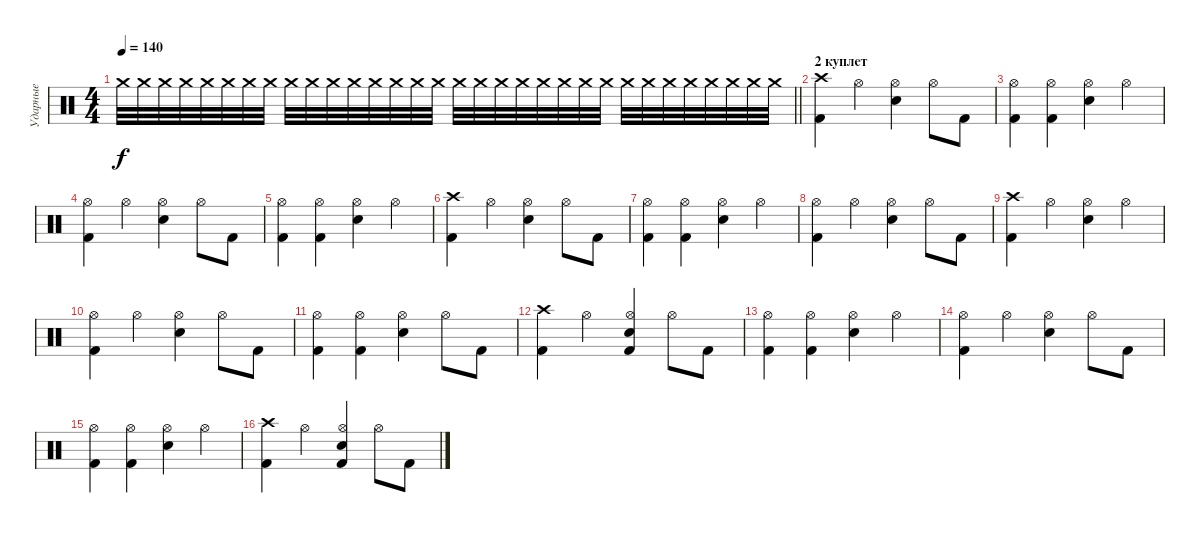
\track ("Ударные" "Ударные") {instrument percussion}
\staff {score}
\articulation defaults
\ts (4 4)
\tempo 140
\clef neutral
\barLineRight lightlight
\ks c "Crash medium (hit)".32{dy f} "Crash medium (hit)".32 "Crash medium (hit)".32 "Crash medium (hit)".32{volume 10} "Crash medium (hit)".32 "Crash medium (hit)".32 "Crash medium (hit)".32 "Crash medium (hit)".32{volume 10} "Crash medium (hit)".32 "Crash medium (hit)".32 "Crash medium (hit)".32 "Crash medium (hit)".32{volume 13} "Crash medium (hit)".32 "Crash medium (hit)".32 "Crash medium (hit)".32 "Crash medium (hit)".32 "Crash medium (hit)".32 "Crash medium (hit)".32 "Crash medium (hit)".32{volume 10} "Crash medium (hit)".32 "Crash medium (hit)".32 "Crash medium (hit)".32 "Crash medium (hit)".32{volume 10} "Crash medium (hit)".32 "Crash medium (hit)".32 "Crash medium (hit)".32 "Crash medium (hit)".32{volume 13} "Crash medium (hit)".32 "Crash medium (hit)".32 "Crash medium (hit)".32 "Crash medium (hit)".32{volume 16} "Crash medium (hit)".32{volume 16}
|
\section ("" "2 куплет")
("Kick (hit) 2" "Crash high (hit)").4{volume 16} "Hi-Hat (open)".4 ("Snare (hit) 2" "Hi-Hat (open)").4 "Hi-Hat (open)".8 "Kick (hit) 2".8 |
("Kick (hit) 2" "Hi-Hat (open)").4 ("Kick (hit) 2" "Hi-Hat (open)").4 ("Snare (hit) 2" "Hi-Hat (open)").4 "Hi-Hat (open)".4 |
("Hi-Hat (open)" "Kick (hit) 2").4 "Hi-Hat (open)".4 ("Snare (hit) 2" "Hi-Hat (open)").4 "Hi-Hat (open)".8 "Kick (hit) 2".8 |
("Kick (hit) 2" "Hi-Hat (open)").4 ("Kick (hit) 2" "Hi-Hat (open)").4 ("Snare (hit) 2" "Hi-Hat (open)").4 "Hi-Hat (open)".4 |
("Kick (hit) 2" "Crash high (hit)").4 "Hi-Hat (open)".4 ("Snare (hit) 2" "Hi-Hat (open)").4 "Hi-Hat (open)".8 "Kick (hit) 2".8 |
("Kick (hit) 2" "Hi-Hat (open)").4 ("Kick (hit) 2" "Hi-Hat (open)").4 ("Snare (hit) 2" "Hi-Hat (open)").4 "Hi-Hat (open)".4 |
("Hi-Hat (open)" "Kick (hit) 2").4 "Hi-Hat (open)".4 ("Snare (hit) 2" "Hi-Hat (open)").4 "Hi-Hat (open)".8 "Kick (hit) 2".8 |
("Kick (hit) 2" "Crash high (hit)").4 "Hi-Hat (open)".4 ("Snare (hit) 2" "Hi-Hat (open)").4 "Hi-Hat (open)".4 |
("Kick (hit) 2" "Hi-Hat (open)").4 "Hi-Hat (open)".4 ("Snare (hit) 2" "Hi-Hat (open)").4 "Hi-Hat (open)".8 "Kick (hit) 2".8 |
("Hi-Hat (open)" "Kick (hit) 2").4 ("Hi-Hat (open)" "Kick (hit) 2").4 ("Snare (hit) 2" "Hi-Hat (open)").4 "Hi-Hat (open)".8 "Kick (hit) 2".8 |
("Kick (hit) 2" "Crash high (hit)").4 "Hi-Hat (open)".4 ("Kick (hit) 2" "Snare (hit) 2" "Hi-Hat (open)").4 "Hi-Hat (open)".8 "Kick (hit) 2".8 |
("Kick (hit) 2" "Hi-Hat (open)").4 ("Kick (hit) 2" "Hi-Hat (open)").4 ("Snare (hit) 2" "Hi-Hat (open)").4 "Hi-Hat (open)".4 |
("Hi-Hat (open)" "Kick (hit) 2").4 "Hi-Hat (open)".4 ("Snare (hit) 2" "Hi-Hat (open)").4 "Hi-Hat (open)".8 "Kick (hit) 2".8 |
("Kick (hit) 2" "Hi-Hat (open)").4 ("Kick (hit) 2" "Hi-Hat (open)").4 ("Snare (hit) 2" "Hi-Hat (open)").4 "Hi-Hat (open)".4 |
("Kick (hit) 2" "Crash high (hit)").4 "Hi-Hat (open)".4 ("Kick (hit) 2" "Snare (hit) 2" "Hi-Hat (open)").4 "Hi-Hat (open)".8 "Kick (hit) 2".8
